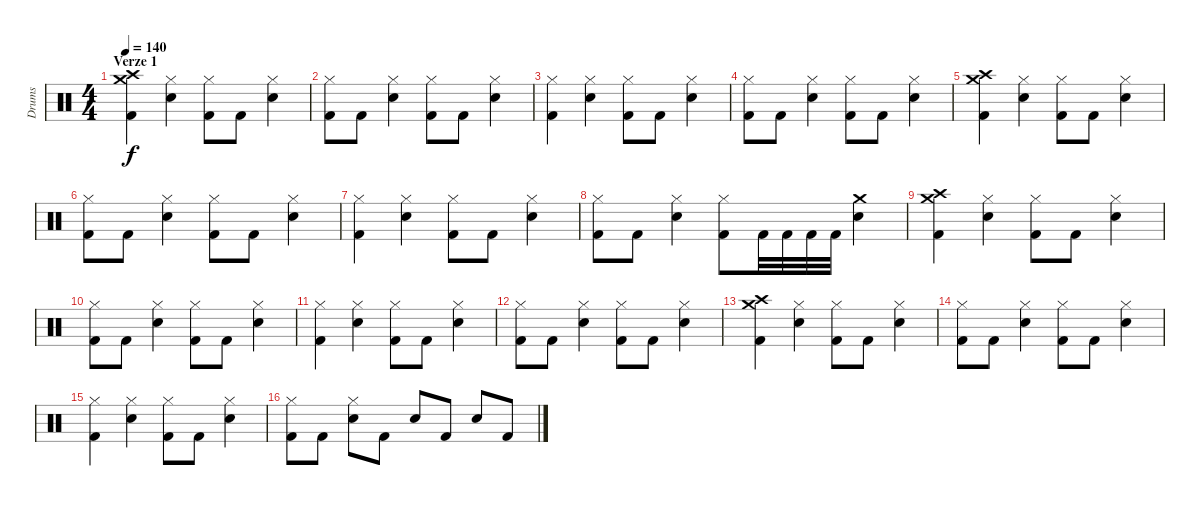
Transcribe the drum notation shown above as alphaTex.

\track ("Drums" "Drums") {instrument percussion}
\staff {score}
\articulation defaults
\ts (4 4)
\section ("" "Verze 1")
\tempo 140
\clef neutral
\ks c
("Crash medium (hit)" "Crash high (hit)" "Kick (hit) 2").4{dy f} ("Hi-Hat (closed)" "Snare (hit) 2").4 ("Hi-Hat (closed)" "Kick (hit) 2").8 "Kick (hit) 2".8 ("Hi-Hat (closed)" "Snare (hit) 2").4 |
("Hi-Hat (closed)" "Kick (hit) 2").8 "Kick (hit) 2".8 ("Hi-Hat (closed)" "Snare (hit) 2").4 ("Hi-Hat (closed)" "Kick (hit) 2").8 "Kick (hit) 2".8 ("Hi-Hat (closed)" "Snare (hit) 2").4 |
("Hi-Hat (closed)" "Kick (hit) 2").4 ("Hi-Hat (closed)" "Snare (hit) 2").4 ("Hi-Hat (closed)" "Kick (hit) 2").8 "Kick (hit) 2".8 ("Hi-Hat (closed)" "Snare (hit) 2").4 |
("Hi-Hat (closed)" "Kick (hit) 2").8 "Kick (hit) 2".8 ("Hi-Hat (closed)" "Snare (hit) 2").4 ("Hi-Hat (closed)" "Kick (hit) 2").8 "Kick (hit) 2".8 ("Hi-Hat (closed)" "Snare (hit) 2").4 |
("Crash medium (hit)" "Crash high (hit)" "Kick (hit) 2").4 ("Hi-Hat (closed)" "Snare (hit) 2").4 ("Hi-Hat (closed)" "Kick (hit) 2").8 "Kick (hit) 2".8 ("Hi-Hat (closed)" "Snare (hit) 2").4 |
("Hi-Hat (closed)" "Kick (hit) 2").8 "Kick (hit) 2".8 ("Hi-Hat (closed)" "Snare (hit) 2").4 ("Hi-Hat (closed)" "Kick (hit) 2").8 "Kick (hit) 2".8 ("Hi-Hat (closed)" "Snare (hit) 2").4 |
("Hi-Hat (closed)" "Kick (hit) 2").4 ("Hi-Hat (closed)" "Snare (hit) 2").4 ("Hi-Hat (closed)" "Kick (hit) 2").8 "Kick (hit) 2".8 ("Hi-Hat (closed)" "Snare (hit) 2").4 |
("Hi-Hat (closed)" "Kick (hit) 2").8 "Kick (hit) 2".8 ("Hi-Hat (closed)" "Snare (hit) 2").4 ("Hi-Hat (closed)" "Kick (hit) 2").8 "Kick (hit) 2".32 "Kick (hit) 2".32 "Kick (hit) 2".32 "Kick (hit) 2".32 ("Crash medium (hit)" "Snare (hit) 2").4 |
("Crash medium (hit)" "Crash high (hit)" "Kick (hit) 2").4 ("Hi-Hat (closed)" "Snare (hit) 2").4 ("Hi-Hat (closed)" "Kick (hit) 2").8 "Kick (hit) 2".8 ("Hi-Hat (closed)" "Snare (hit) 2").4 |
("Hi-Hat (closed)" "Kick (hit) 2").8 "Kick (hit) 2".8 ("Hi-Hat (closed)" "Snare (hit) 2").4 ("Hi-Hat (closed)" "Kick (hit) 2").8 "Kick (hit) 2".8 ("Hi-Hat (closed)" "Snare (hit) 2").4 |
("Hi-Hat (closed)" "Kick (hit) 2").4 ("Hi-Hat (closed)" "Snare (hit) 2").4 ("Hi-Hat (closed)" "Kick (hit) 2").8 "Kick (hit) 2".8 ("Hi-Hat (closed)" "Snare (hit) 2").4 |
("Hi-Hat (closed)" "Kick (hit) 2").8 "Kick (hit) 2".8 ("Hi-Hat (closed)" "Snare (hit) 2").4 ("Hi-Hat (closed)" "Kick (hit) 2").8 "Kick (hit) 2".8 ("Hi-Hat (closed)" "Snare (hit) 2").4 |
("Crash medium (hit)" "Crash high (hit)" "Kick (hit) 2").4 ("Hi-Hat (closed)" "Snare (hit) 2").4 ("Hi-Hat (closed)" "Kick (hit) 2").8 "Kick (hit) 2".8 ("Hi-Hat (closed)" "Snare (hit) 2").4 |
("Hi-Hat (closed)" "Kick (hit) 2").8 "Kick (hit) 2".8 ("Hi-Hat (closed)" "Snare (hit) 2").4 ("Hi-Hat (closed)" "Kick (hit) 2").8 "Kick (hit) 2".8 ("Hi-Hat (closed)" "Snare (hit) 2").4 |
("Hi-Hat (closed)" "Kick (hit) 2").4 ("Hi-Hat (closed)" "Snare (hit) 2").4 ("Hi-Hat (closed)" "Kick (hit) 2").8 "Kick (hit) 2".8 ("Hi-Hat (closed)" "Snare (hit) 2").4 |
("Hi-Hat (closed)" "Kick (hit) 2").8 "Kick (hit) 2".8 ("Hi-Hat (closed)" "Snare (hit) 2").8 "Kick (hit) 2".8 "Snare (hit) 2".8 "Kick (hit) 2".8 "Snare (hit) 2".8 "Kick (hit) 2".8
